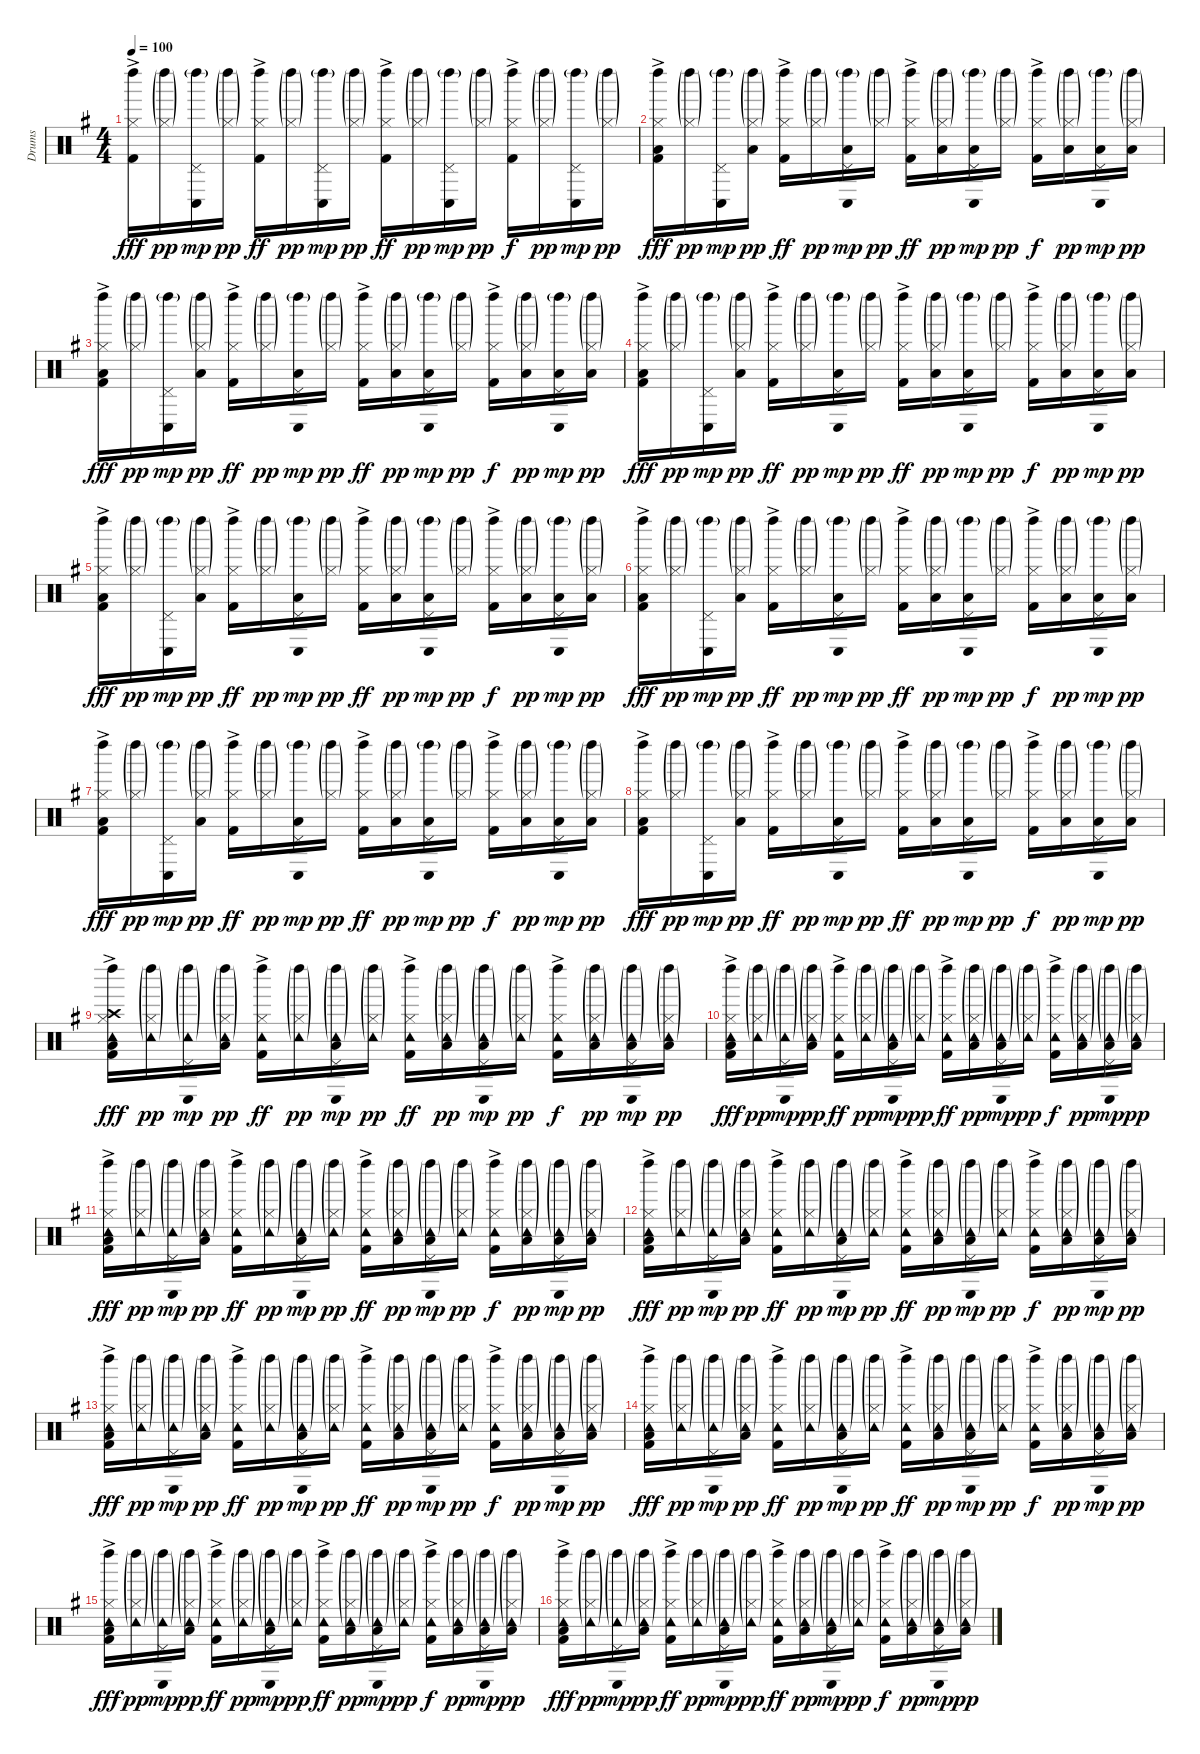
\track ("Drums" "Drums") {instrument percussion}
\staff {score}
\articulation defaults
\ts (4 4)
\tempo 100
\clef neutral
\ks g
("Kick (hit) 2"{ac} "Hi-Hat (closed)" "Left Maraca (hit)").16{dy fff} ("Hi-Hat (closed)"{g} "Left Maraca (hit)"{g}).16{dy pp} ("Pedal Hi-Hat (hit)" "Conga low (hit)" "Left Maraca (hit)"{g}).16{dy mp} ("Hi-Hat (closed)"{g} "Left Maraca (hit)"{g}).16{dy pp} ("Kick (hit) 2"{ac} "Hi-Hat (closed)" "Left Maraca (hit)").16{dy ff} ("Hi-Hat (closed)"{g} "Left Maraca (hit)"{g}).16{dy pp} ("Pedal Hi-Hat (hit)" "Conga low (hit)" "Left Maraca (hit)"{g}).16{dy mp} ("Hi-Hat (closed)"{g} "Left Maraca (hit)"{g}).16{dy pp} ("Kick (hit) 2"{ac} "Hi-Hat (closed)" "Left Maraca (hit)").16{dy ff} ("Hi-Hat (closed)"{g} "Left Maraca (hit)"{g}).16{dy pp} ("Pedal Hi-Hat (hit)" "Conga low (hit)" "Left Maraca (hit)"{g}).16{dy mp} ("Hi-Hat (closed)"{g} "Left Maraca (hit)"{g}).16{dy pp} ("Kick (hit) 2"{ac} "Hi-Hat (closed)" "Left Maraca (hit)").16{dy f} ("Hi-Hat (closed)"{g} "Left Maraca (hit)"{g}).16{dy pp} ("Pedal Hi-Hat (hit)" "Conga low (hit)" "Left Maraca (hit)"{g}).16{dy mp} ("Hi-Hat (closed)"{g} "Left Maraca (hit)"{g}).16{dy pp} |
("Kick (hit) 2"{ac} "Low Floor Tom (hit)" "Hi-Hat (closed)" "Left Maraca (hit)").16{dy fff} ("Hi-Hat (closed)"{g} "Left Maraca (hit)"{g}).16{dy pp} ("Conga low (hit)" "Pedal Hi-Hat (hit)" "Left Maraca (hit)"{g}).16{dy mp} ("Low Floor Tom (hit)" "Hi-Hat (closed)"{g} "Left Maraca (hit)"{g}).16{dy pp} ("Kick (hit) 2"{ac} "Hi-Hat (closed)" "Left Maraca (hit)").16{dy ff} ("Hi-Hat (closed)"{g} "Left Maraca (hit)"{g}).16{dy pp} ("Low Floor Tom (hit)" "Conga low (hit)" "Pedal Hi-Hat (hit)" "Left Maraca (hit)"{g}).16{dy mp} ("Hi-Hat (closed)"{g} "Left Maraca (hit)"{g}).16{dy pp} ("Kick (hit) 2"{ac} "Hi-Hat (closed)" "Left Maraca (hit)").16{dy ff} ("Low Floor Tom (hit)" "Hi-Hat (closed)"{g} "Left Maraca (hit)"{g}).16{dy pp} ("Low Floor Tom (hit)" "Conga low (hit)" "Pedal Hi-Hat (hit)" "Left Maraca (hit)"{g}).16{dy mp} ("Hi-Hat (closed)"{g} "Left Maraca (hit)"{g}).16{dy pp} ("Kick (hit) 2"{ac} "Hi-Hat (closed)" "Left Maraca (hit)").16{dy f} ("Low Floor Tom (hit)" "Hi-Hat (closed)"{g} "Left Maraca (hit)"{g}).16{dy pp} ("Low Floor Tom (hit)" "Conga low (hit)" "Pedal Hi-Hat (hit)" "Left Maraca (hit)"{g}).16{dy mp} ("Low Floor Tom (hit)" "Hi-Hat (closed)"{g} "Left Maraca (hit)"{g}).16{dy pp} |
("Kick (hit) 2"{ac} "Low Floor Tom (hit)" "Hi-Hat (closed)" "Left Maraca (hit)").16{dy fff} ("Hi-Hat (closed)"{g} "Left Maraca (hit)"{g}).16{dy pp} ("Conga low (hit)" "Pedal Hi-Hat (hit)" "Left Maraca (hit)"{g}).16{dy mp} ("Low Floor Tom (hit)" "Hi-Hat (closed)"{g} "Left Maraca (hit)"{g}).16{dy pp} ("Kick (hit) 2"{ac} "Hi-Hat (closed)" "Left Maraca (hit)").16{dy ff} ("Hi-Hat (closed)"{g} "Left Maraca (hit)"{g}).16{dy pp} ("Low Floor Tom (hit)" "Conga low (hit)" "Pedal Hi-Hat (hit)" "Left Maraca (hit)"{g}).16{dy mp} ("Hi-Hat (closed)"{g} "Left Maraca (hit)"{g}).16{dy pp} ("Kick (hit) 2"{ac} "Hi-Hat (closed)" "Left Maraca (hit)").16{dy ff} ("Low Floor Tom (hit)" "Hi-Hat (closed)"{g} "Left Maraca (hit)"{g}).16{dy pp} ("Low Floor Tom (hit)" "Conga low (hit)" "Pedal Hi-Hat (hit)" "Left Maraca (hit)"{g}).16{dy mp} ("Hi-Hat (closed)"{g} "Left Maraca (hit)"{g}).16{dy pp} ("Kick (hit) 2"{ac} "Hi-Hat (closed)" "Left Maraca (hit)").16{dy f} ("Low Floor Tom (hit)" "Hi-Hat (closed)"{g} "Left Maraca (hit)"{g}).16{dy pp} ("Low Floor Tom (hit)" "Conga low (hit)" "Pedal Hi-Hat (hit)" "Left Maraca (hit)"{g}).16{dy mp} ("Low Floor Tom (hit)" "Hi-Hat (closed)"{g} "Left Maraca (hit)"{g}).16{dy pp} |
("Kick (hit) 2"{ac} "Low Floor Tom (hit)" "Hi-Hat (closed)" "Left Maraca (hit)").16{dy fff} ("Hi-Hat (closed)"{g} "Left Maraca (hit)"{g}).16{dy pp} ("Conga low (hit)" "Pedal Hi-Hat (hit)" "Left Maraca (hit)"{g}).16{dy mp} ("Low Floor Tom (hit)" "Hi-Hat (closed)"{g} "Left Maraca (hit)"{g}).16{dy pp} ("Kick (hit) 2"{ac} "Hi-Hat (closed)" "Left Maraca (hit)").16{dy ff} ("Hi-Hat (closed)"{g} "Left Maraca (hit)"{g}).16{dy pp} ("Low Floor Tom (hit)" "Conga low (hit)" "Pedal Hi-Hat (hit)" "Left Maraca (hit)"{g}).16{dy mp} ("Hi-Hat (closed)"{g} "Left Maraca (hit)"{g}).16{dy pp} ("Kick (hit) 2"{ac} "Hi-Hat (closed)" "Left Maraca (hit)").16{dy ff} ("Low Floor Tom (hit)" "Hi-Hat (closed)"{g} "Left Maraca (hit)"{g}).16{dy pp} ("Low Floor Tom (hit)" "Conga low (hit)" "Pedal Hi-Hat (hit)" "Left Maraca (hit)"{g}).16{dy mp} ("Hi-Hat (closed)"{g} "Left Maraca (hit)"{g}).16{dy pp} ("Kick (hit) 2"{ac} "Hi-Hat (closed)" "Left Maraca (hit)").16{dy f} ("Low Floor Tom (hit)" "Hi-Hat (closed)"{g} "Left Maraca (hit)"{g}).16{dy pp} ("Low Floor Tom (hit)" "Conga low (hit)" "Pedal Hi-Hat (hit)" "Left Maraca (hit)"{g}).16{dy mp} ("Low Floor Tom (hit)" "Hi-Hat (closed)"{g} "Left Maraca (hit)"{g}).16{dy pp} |
("Kick (hit) 2"{ac} "Low Floor Tom (hit)" "Hi-Hat (closed)" "Left Maraca (hit)").16{dy fff} ("Hi-Hat (closed)"{g} "Left Maraca (hit)"{g}).16{dy pp} ("Conga low (hit)" "Pedal Hi-Hat (hit)" "Left Maraca (hit)"{g}).16{dy mp} ("Low Floor Tom (hit)" "Hi-Hat (closed)"{g} "Left Maraca (hit)"{g}).16{dy pp} ("Kick (hit) 2"{ac} "Hi-Hat (closed)" "Left Maraca (hit)").16{dy ff} ("Hi-Hat (closed)"{g} "Left Maraca (hit)"{g}).16{dy pp} ("Low Floor Tom (hit)" "Conga low (hit)" "Pedal Hi-Hat (hit)" "Left Maraca (hit)"{g}).16{dy mp} ("Hi-Hat (closed)"{g} "Left Maraca (hit)"{g}).16{dy pp} ("Kick (hit) 2"{ac} "Hi-Hat (closed)" "Left Maraca (hit)").16{dy ff} ("Low Floor Tom (hit)" "Hi-Hat (closed)"{g} "Left Maraca (hit)"{g}).16{dy pp} ("Low Floor Tom (hit)" "Conga low (hit)" "Pedal Hi-Hat (hit)" "Left Maraca (hit)"{g}).16{dy mp} ("Hi-Hat (closed)"{g} "Left Maraca (hit)"{g}).16{dy pp} ("Kick (hit) 2"{ac} "Hi-Hat (closed)" "Left Maraca (hit)").16{dy f} ("Low Floor Tom (hit)" "Hi-Hat (closed)"{g} "Left Maraca (hit)"{g}).16{dy pp} ("Low Floor Tom (hit)" "Conga low (hit)" "Pedal Hi-Hat (hit)" "Left Maraca (hit)"{g}).16{dy mp} ("Low Floor Tom (hit)" "Hi-Hat (closed)"{g} "Left Maraca (hit)"{g}).16{dy pp} |
("Kick (hit) 2"{ac} "Low Floor Tom (hit)" "Hi-Hat (closed)" "Left Maraca (hit)").16{dy fff} ("Hi-Hat (closed)"{g} "Left Maraca (hit)"{g}).16{dy pp} ("Conga low (hit)" "Pedal Hi-Hat (hit)" "Left Maraca (hit)"{g}).16{dy mp} ("Low Floor Tom (hit)" "Hi-Hat (closed)"{g} "Left Maraca (hit)"{g}).16{dy pp} ("Kick (hit) 2"{ac} "Hi-Hat (closed)" "Left Maraca (hit)").16{dy ff} ("Hi-Hat (closed)"{g} "Left Maraca (hit)"{g}).16{dy pp} ("Low Floor Tom (hit)" "Conga low (hit)" "Pedal Hi-Hat (hit)" "Left Maraca (hit)"{g}).16{dy mp} ("Hi-Hat (closed)"{g} "Left Maraca (hit)"{g}).16{dy pp} ("Kick (hit) 2"{ac} "Hi-Hat (closed)" "Left Maraca (hit)").16{dy ff} ("Low Floor Tom (hit)" "Hi-Hat (closed)"{g} "Left Maraca (hit)"{g}).16{dy pp} ("Low Floor Tom (hit)" "Conga low (hit)" "Pedal Hi-Hat (hit)" "Left Maraca (hit)"{g}).16{dy mp} ("Hi-Hat (closed)"{g} "Left Maraca (hit)"{g}).16{dy pp} ("Kick (hit) 2"{ac} "Hi-Hat (closed)" "Left Maraca (hit)").16{dy f} ("Low Floor Tom (hit)" "Hi-Hat (closed)"{g} "Left Maraca (hit)"{g}).16{dy pp} ("Low Floor Tom (hit)" "Conga low (hit)" "Pedal Hi-Hat (hit)" "Left Maraca (hit)"{g}).16{dy mp} ("Low Floor Tom (hit)" "Hi-Hat (closed)"{g} "Left Maraca (hit)"{g}).16{dy pp} |
("Kick (hit) 2"{ac} "Low Floor Tom (hit)" "Hi-Hat (closed)" "Left Maraca (hit)").16{dy fff} ("Hi-Hat (closed)"{g} "Left Maraca (hit)"{g}).16{dy pp} ("Conga low (hit)" "Pedal Hi-Hat (hit)" "Left Maraca (hit)"{g}).16{dy mp} ("Low Floor Tom (hit)" "Hi-Hat (closed)"{g} "Left Maraca (hit)"{g}).16{dy pp} ("Kick (hit) 2"{ac} "Hi-Hat (closed)" "Left Maraca (hit)").16{dy ff} ("Hi-Hat (closed)"{g} "Left Maraca (hit)"{g}).16{dy pp} ("Low Floor Tom (hit)" "Conga low (hit)" "Pedal Hi-Hat (hit)" "Left Maraca (hit)"{g}).16{dy mp} ("Hi-Hat (closed)"{g} "Left Maraca (hit)"{g}).16{dy pp} ("Kick (hit) 2"{ac} "Hi-Hat (closed)" "Left Maraca (hit)").16{dy ff} ("Low Floor Tom (hit)" "Hi-Hat (closed)"{g} "Left Maraca (hit)"{g}).16{dy pp} ("Low Floor Tom (hit)" "Conga low (hit)" "Pedal Hi-Hat (hit)" "Left Maraca (hit)"{g}).16{dy mp} ("Hi-Hat (closed)"{g} "Left Maraca (hit)"{g}).16{dy pp} ("Kick (hit) 2"{ac} "Hi-Hat (closed)" "Left Maraca (hit)").16{dy f} ("Low Floor Tom (hit)" "Hi-Hat (closed)"{g} "Left Maraca (hit)"{g}).16{dy pp} ("Low Floor Tom (hit)" "Conga low (hit)" "Pedal Hi-Hat (hit)" "Left Maraca (hit)"{g}).16{dy mp} ("Low Floor Tom (hit)" "Hi-Hat (closed)"{g} "Left Maraca (hit)"{g}).16{dy pp} |
("Kick (hit) 2"{ac} "Low Floor Tom (hit)" "Hi-Hat (closed)" "Left Maraca (hit)").16{dy fff} ("Hi-Hat (closed)"{g} "Left Maraca (hit)"{g}).16{dy pp} ("Conga low (hit)" "Pedal Hi-Hat (hit)" "Left Maraca (hit)"{g}).16{dy mp} ("Low Floor Tom (hit)" "Hi-Hat (closed)"{g} "Left Maraca (hit)"{g}).16{dy pp} ("Kick (hit) 2"{ac} "Hi-Hat (closed)" "Left Maraca (hit)").16{dy ff} ("Hi-Hat (closed)"{g} "Left Maraca (hit)"{g}).16{dy pp} ("Low Floor Tom (hit)" "Conga low (hit)" "Pedal Hi-Hat (hit)" "Left Maraca (hit)"{g}).16{dy mp} ("Hi-Hat (closed)"{g} "Left Maraca (hit)"{g}).16{dy pp} ("Kick (hit) 2"{ac} "Hi-Hat (closed)" "Left Maraca (hit)").16{dy ff} ("Low Floor Tom (hit)" "Hi-Hat (closed)"{g} "Left Maraca (hit)"{g}).16{dy pp} ("Low Floor Tom (hit)" "Conga low (hit)" "Pedal Hi-Hat (hit)" "Left Maraca (hit)"{g}).16{dy mp} ("Hi-Hat (closed)"{g} "Left Maraca (hit)"{g}).16{dy pp} ("Kick (hit) 2"{ac} "Hi-Hat (closed)" "Left Maraca (hit)").16{dy f} ("Low Floor Tom (hit)" "Hi-Hat (closed)"{g} "Left Maraca (hit)"{g}).16{dy pp} ("Low Floor Tom (hit)" "Conga low (hit)" "Pedal Hi-Hat (hit)" "Left Maraca (hit)"{g}).16{dy mp} ("Low Floor Tom (hit)" "Hi-Hat (closed)"{g} "Left Maraca (hit)"{g}).16{dy pp} |
("Kick (hit) 2"{ac} "Low Floor Tom (hit)" "Crash high (hit)" "Hi-Hat (closed)" "Tambourine (hit)" "Left Maraca (hit)").16{dy fff} ("Hi-Hat (closed)"{g} "Tambourine (hit)"{g} "Left Maraca (hit)"{g}).16{dy pp} ("Conga low (hit)" "Pedal Hi-Hat (hit)" "Tambourine (hit)"{g} "Left Maraca (hit)"{g}).16{dy mp} ("Low Floor Tom (hit)" "Hi-Hat (closed)"{g} "Tambourine (hit)"{g} "Left Maraca (hit)"{g}).16{dy pp} ("Kick (hit) 2"{ac} "Hi-Hat (closed)" "Tambourine (hit)" "Left Maraca (hit)").16{dy ff} ("Hi-Hat (closed)"{g} "Tambourine (hit)"{g} "Left Maraca (hit)"{g}).16{dy pp} ("Low Floor Tom (hit)" "Conga low (hit)" "Pedal Hi-Hat (hit)" "Tambourine (hit)"{g} "Left Maraca (hit)"{g}).16{dy mp} ("Hi-Hat (closed)"{g} "Tambourine (hit)"{g} "Left Maraca (hit)"{g}).16{dy pp} ("Kick (hit) 2"{ac} "Hi-Hat (closed)" "Tambourine (hit)" "Left Maraca (hit)").16{dy ff} ("Low Floor Tom (hit)" "Hi-Hat (closed)"{g} "Tambourine (hit)"{g} "Left Maraca (hit)"{g}).16{dy pp} ("Low Floor Tom (hit)" "Conga low (hit)" "Pedal Hi-Hat (hit)" "Tambourine (hit)"{g} "Left Maraca (hit)"{g}).16{dy mp} ("Hi-Hat (closed)"{g} "Tambourine (hit)"{g} "Left Maraca (hit)"{g}).16{dy pp} ("Kick (hit) 2"{ac} "Hi-Hat (closed)" "Tambourine (hit)" "Left Maraca (hit)").16{dy f} ("Low Floor Tom (hit)" "Hi-Hat (closed)"{g} "Tambourine (hit)"{g} "Left Maraca (hit)"{g}).16{dy pp} ("Low Floor Tom (hit)" "Conga low (hit)" "Pedal Hi-Hat (hit)" "Tambourine (hit)"{g} "Left Maraca (hit)"{g}).16{dy mp} ("Low Floor Tom (hit)" "Hi-Hat (closed)"{g} "Tambourine (hit)"{g} "Left Maraca (hit)"{g}).16{dy pp} |
("Kick (hit) 2"{ac} "Low Floor Tom (hit)" "Hi-Hat (closed)" "Tambourine (hit)" "Left Maraca (hit)").16{dy fff} ("Hi-Hat (closed)"{g} "Tambourine (hit)"{g} "Left Maraca (hit)"{g}).16{dy pp} ("Conga low (hit)" "Pedal Hi-Hat (hit)" "Tambourine (hit)"{g} "Left Maraca (hit)"{g}).16{dy mp} ("Low Floor Tom (hit)" "Hi-Hat (closed)"{g} "Tambourine (hit)"{g} "Left Maraca (hit)"{g}).16{dy pp} ("Kick (hit) 2"{ac} "Hi-Hat (closed)" "Tambourine (hit)" "Left Maraca (hit)").16{dy ff} ("Hi-Hat (closed)"{g} "Tambourine (hit)"{g} "Left Maraca (hit)"{g}).16{dy pp} ("Low Floor Tom (hit)" "Conga low (hit)" "Pedal Hi-Hat (hit)" "Tambourine (hit)"{g} "Left Maraca (hit)"{g}).16{dy mp} ("Hi-Hat (closed)"{g} "Tambourine (hit)"{g} "Left Maraca (hit)"{g}).16{dy pp} ("Kick (hit) 2"{ac} "Hi-Hat (closed)" "Tambourine (hit)" "Left Maraca (hit)").16{dy ff} ("Low Floor Tom (hit)" "Hi-Hat (closed)"{g} "Tambourine (hit)"{g} "Left Maraca (hit)"{g}).16{dy pp} ("Low Floor Tom (hit)" "Conga low (hit)" "Pedal Hi-Hat (hit)" "Tambourine (hit)"{g} "Left Maraca (hit)"{g}).16{dy mp} ("Hi-Hat (closed)"{g} "Tambourine (hit)"{g} "Left Maraca (hit)"{g}).16{dy pp} ("Kick (hit) 2"{ac} "Hi-Hat (closed)" "Tambourine (hit)" "Left Maraca (hit)").16{dy f} ("Low Floor Tom (hit)" "Hi-Hat (closed)"{g} "Tambourine (hit)"{g} "Left Maraca (hit)"{g}).16{dy pp} ("Low Floor Tom (hit)" "Conga low (hit)" "Pedal Hi-Hat (hit)" "Tambourine (hit)"{g} "Left Maraca (hit)"{g}).16{dy mp} ("Low Floor Tom (hit)" "Hi-Hat (closed)"{g} "Tambourine (hit)"{g} "Left Maraca (hit)"{g}).16{dy pp} |
("Kick (hit) 2"{ac} "Low Floor Tom (hit)" "Hi-Hat (closed)" "Tambourine (hit)" "Left Maraca (hit)").16{dy fff} ("Hi-Hat (closed)"{g} "Tambourine (hit)"{g} "Left Maraca (hit)"{g}).16{dy pp} ("Conga low (hit)" "Pedal Hi-Hat (hit)" "Tambourine (hit)"{g} "Left Maraca (hit)"{g}).16{dy mp} ("Low Floor Tom (hit)" "Hi-Hat (closed)"{g} "Tambourine (hit)"{g} "Left Maraca (hit)"{g}).16{dy pp} ("Kick (hit) 2"{ac} "Hi-Hat (closed)" "Tambourine (hit)" "Left Maraca (hit)").16{dy ff} ("Hi-Hat (closed)"{g} "Tambourine (hit)"{g} "Left Maraca (hit)"{g}).16{dy pp} ("Low Floor Tom (hit)" "Conga low (hit)" "Pedal Hi-Hat (hit)" "Tambourine (hit)"{g} "Left Maraca (hit)"{g}).16{dy mp} ("Hi-Hat (closed)"{g} "Tambourine (hit)"{g} "Left Maraca (hit)"{g}).16{dy pp} ("Kick (hit) 2"{ac} "Hi-Hat (closed)" "Tambourine (hit)" "Left Maraca (hit)").16{dy ff} ("Low Floor Tom (hit)" "Hi-Hat (closed)"{g} "Tambourine (hit)"{g} "Left Maraca (hit)"{g}).16{dy pp} ("Low Floor Tom (hit)" "Conga low (hit)" "Pedal Hi-Hat (hit)" "Tambourine (hit)"{g} "Left Maraca (hit)"{g}).16{dy mp} ("Hi-Hat (closed)"{g} "Tambourine (hit)"{g} "Left Maraca (hit)"{g}).16{dy pp} ("Kick (hit) 2"{ac} "Hi-Hat (closed)" "Tambourine (hit)" "Left Maraca (hit)").16{dy f} ("Low Floor Tom (hit)" "Hi-Hat (closed)"{g} "Tambourine (hit)"{g} "Left Maraca (hit)"{g}).16{dy pp} ("Low Floor Tom (hit)" "Conga low (hit)" "Pedal Hi-Hat (hit)" "Tambourine (hit)"{g} "Left Maraca (hit)"{g}).16{dy mp} ("Low Floor Tom (hit)" "Hi-Hat (closed)"{g} "Tambourine (hit)"{g} "Left Maraca (hit)"{g}).16{dy pp} |
("Kick (hit) 2"{ac} "Low Floor Tom (hit)" "Hi-Hat (closed)" "Tambourine (hit)" "Left Maraca (hit)").16{dy fff} ("Hi-Hat (closed)"{g} "Tambourine (hit)"{g} "Left Maraca (hit)"{g}).16{dy pp} ("Conga low (hit)" "Pedal Hi-Hat (hit)" "Tambourine (hit)"{g} "Left Maraca (hit)"{g}).16{dy mp} ("Low Floor Tom (hit)" "Hi-Hat (closed)"{g} "Tambourine (hit)"{g} "Left Maraca (hit)"{g}).16{dy pp} ("Kick (hit) 2"{ac} "Hi-Hat (closed)" "Tambourine (hit)" "Left Maraca (hit)").16{dy ff} ("Hi-Hat (closed)"{g} "Tambourine (hit)"{g} "Left Maraca (hit)"{g}).16{dy pp} ("Low Floor Tom (hit)" "Conga low (hit)" "Pedal Hi-Hat (hit)" "Tambourine (hit)"{g} "Left Maraca (hit)"{g}).16{dy mp} ("Hi-Hat (closed)"{g} "Tambourine (hit)"{g} "Left Maraca (hit)"{g}).16{dy pp} ("Kick (hit) 2"{ac} "Hi-Hat (closed)" "Tambourine (hit)" "Left Maraca (hit)").16{dy ff} ("Low Floor Tom (hit)" "Hi-Hat (closed)"{g} "Tambourine (hit)"{g} "Left Maraca (hit)"{g}).16{dy pp} ("Low Floor Tom (hit)" "Conga low (hit)" "Pedal Hi-Hat (hit)" "Tambourine (hit)"{g} "Left Maraca (hit)"{g}).16{dy mp} ("Hi-Hat (closed)"{g} "Tambourine (hit)"{g} "Left Maraca (hit)"{g}).16{dy pp} ("Kick (hit) 2"{ac} "Hi-Hat (closed)" "Tambourine (hit)" "Left Maraca (hit)").16{dy f} ("Low Floor Tom (hit)" "Hi-Hat (closed)"{g} "Tambourine (hit)"{g} "Left Maraca (hit)"{g}).16{dy pp} ("Low Floor Tom (hit)" "Conga low (hit)" "Pedal Hi-Hat (hit)" "Tambourine (hit)"{g} "Left Maraca (hit)"{g}).16{dy mp} ("Low Floor Tom (hit)" "Hi-Hat (closed)"{g} "Tambourine (hit)"{g} "Left Maraca (hit)"{g}).16{dy pp} |
("Kick (hit) 2"{ac} "Low Floor Tom (hit)" "Hi-Hat (closed)" "Tambourine (hit)" "Left Maraca (hit)").16{dy fff} ("Hi-Hat (closed)"{g} "Tambourine (hit)"{g} "Left Maraca (hit)"{g}).16{dy pp} ("Conga low (hit)" "Pedal Hi-Hat (hit)" "Tambourine (hit)"{g} "Left Maraca (hit)"{g}).16{dy mp} ("Low Floor Tom (hit)" "Hi-Hat (closed)"{g} "Tambourine (hit)"{g} "Left Maraca (hit)"{g}).16{dy pp} ("Kick (hit) 2"{ac} "Hi-Hat (closed)" "Tambourine (hit)" "Left Maraca (hit)").16{dy ff} ("Hi-Hat (closed)"{g} "Tambourine (hit)"{g} "Left Maraca (hit)"{g}).16{dy pp} ("Low Floor Tom (hit)" "Conga low (hit)" "Pedal Hi-Hat (hit)" "Tambourine (hit)"{g} "Left Maraca (hit)"{g}).16{dy mp} ("Hi-Hat (closed)"{g} "Tambourine (hit)"{g} "Left Maraca (hit)"{g}).16{dy pp} ("Kick (hit) 2"{ac} "Hi-Hat (closed)" "Tambourine (hit)" "Left Maraca (hit)").16{dy ff} ("Low Floor Tom (hit)" "Hi-Hat (closed)"{g} "Tambourine (hit)"{g} "Left Maraca (hit)"{g}).16{dy pp} ("Low Floor Tom (hit)" "Conga low (hit)" "Pedal Hi-Hat (hit)" "Tambourine (hit)"{g} "Left Maraca (hit)"{g}).16{dy mp} ("Hi-Hat (closed)"{g} "Tambourine (hit)"{g} "Left Maraca (hit)"{g}).16{dy pp} ("Kick (hit) 2"{ac} "Hi-Hat (closed)" "Tambourine (hit)" "Left Maraca (hit)").16{dy f} ("Low Floor Tom (hit)" "Hi-Hat (closed)"{g} "Tambourine (hit)"{g} "Left Maraca (hit)"{g}).16{dy pp} ("Low Floor Tom (hit)" "Conga low (hit)" "Pedal Hi-Hat (hit)" "Tambourine (hit)"{g} "Left Maraca (hit)"{g}).16{dy mp} ("Low Floor Tom (hit)" "Hi-Hat (closed)"{g} "Tambourine (hit)"{g} "Left Maraca (hit)"{g}).16{dy pp} |
("Kick (hit) 2"{ac} "Low Floor Tom (hit)" "Hi-Hat (closed)" "Tambourine (hit)" "Left Maraca (hit)").16{dy fff} ("Hi-Hat (closed)"{g} "Tambourine (hit)"{g} "Left Maraca (hit)"{g}).16{dy pp} ("Conga low (hit)" "Pedal Hi-Hat (hit)" "Tambourine (hit)"{g} "Left Maraca (hit)"{g}).16{dy mp} ("Low Floor Tom (hit)" "Hi-Hat (closed)"{g} "Tambourine (hit)"{g} "Left Maraca (hit)"{g}).16{dy pp} ("Kick (hit) 2"{ac} "Hi-Hat (closed)" "Tambourine (hit)" "Left Maraca (hit)").16{dy ff} ("Hi-Hat (closed)"{g} "Tambourine (hit)"{g} "Left Maraca (hit)"{g}).16{dy pp} ("Low Floor Tom (hit)" "Conga low (hit)" "Pedal Hi-Hat (hit)" "Tambourine (hit)"{g} "Left Maraca (hit)"{g}).16{dy mp} ("Hi-Hat (closed)"{g} "Tambourine (hit)"{g} "Left Maraca (hit)"{g}).16{dy pp} ("Kick (hit) 2"{ac} "Hi-Hat (closed)" "Tambourine (hit)" "Left Maraca (hit)").16{dy ff} ("Low Floor Tom (hit)" "Hi-Hat (closed)"{g} "Tambourine (hit)"{g} "Left Maraca (hit)"{g}).16{dy pp} ("Low Floor Tom (hit)" "Conga low (hit)" "Pedal Hi-Hat (hit)" "Tambourine (hit)"{g} "Left Maraca (hit)"{g}).16{dy mp} ("Hi-Hat (closed)"{g} "Tambourine (hit)"{g} "Left Maraca (hit)"{g}).16{dy pp} ("Kick (hit) 2"{ac} "Hi-Hat (closed)" "Tambourine (hit)" "Left Maraca (hit)").16{dy f} ("Low Floor Tom (hit)" "Hi-Hat (closed)"{g} "Tambourine (hit)"{g} "Left Maraca (hit)"{g}).16{dy pp} ("Low Floor Tom (hit)" "Conga low (hit)" "Pedal Hi-Hat (hit)" "Tambourine (hit)"{g} "Left Maraca (hit)"{g}).16{dy mp} ("Low Floor Tom (hit)" "Hi-Hat (closed)"{g} "Tambourine (hit)"{g} "Left Maraca (hit)"{g}).16{dy pp} |
("Kick (hit) 2"{ac} "Low Floor Tom (hit)" "Hi-Hat (closed)" "Tambourine (hit)" "Left Maraca (hit)").16{dy fff} ("Hi-Hat (closed)"{g} "Tambourine (hit)"{g} "Left Maraca (hit)"{g}).16{dy pp} ("Conga low (hit)" "Pedal Hi-Hat (hit)" "Tambourine (hit)"{g} "Left Maraca (hit)"{g}).16{dy mp} ("Low Floor Tom (hit)" "Hi-Hat (closed)"{g} "Tambourine (hit)"{g} "Left Maraca (hit)"{g}).16{dy pp} ("Kick (hit) 2"{ac} "Hi-Hat (closed)" "Tambourine (hit)" "Left Maraca (hit)").16{dy ff} ("Hi-Hat (closed)"{g} "Tambourine (hit)"{g} "Left Maraca (hit)"{g}).16{dy pp} ("Low Floor Tom (hit)" "Conga low (hit)" "Pedal Hi-Hat (hit)" "Tambourine (hit)"{g} "Left Maraca (hit)"{g}).16{dy mp} ("Hi-Hat (closed)"{g} "Tambourine (hit)"{g} "Left Maraca (hit)"{g}).16{dy pp} ("Kick (hit) 2"{ac} "Hi-Hat (closed)" "Tambourine (hit)" "Left Maraca (hit)").16{dy ff} ("Low Floor Tom (hit)" "Hi-Hat (closed)"{g} "Tambourine (hit)"{g} "Left Maraca (hit)"{g}).16{dy pp} ("Low Floor Tom (hit)" "Conga low (hit)" "Pedal Hi-Hat (hit)" "Tambourine (hit)"{g} "Left Maraca (hit)"{g}).16{dy mp} ("Hi-Hat (closed)"{g} "Tambourine (hit)"{g} "Left Maraca (hit)"{g}).16{dy pp} ("Kick (hit) 2"{ac} "Hi-Hat (closed)" "Tambourine (hit)" "Left Maraca (hit)").16{dy f} ("Low Floor Tom (hit)" "Hi-Hat (closed)"{g} "Tambourine (hit)"{g} "Left Maraca (hit)"{g}).16{dy pp} ("Low Floor Tom (hit)" "Conga low (hit)" "Pedal Hi-Hat (hit)" "Tambourine (hit)"{g} "Left Maraca (hit)"{g}).16{dy mp} ("Low Floor Tom (hit)" "Hi-Hat (closed)"{g} "Tambourine (hit)"{g} "Left Maraca (hit)"{g}).16{dy pp} |
("Kick (hit) 2"{ac} "Low Floor Tom (hit)" "Hi-Hat (closed)" "Tambourine (hit)" "Left Maraca (hit)").16{dy fff} ("Hi-Hat (closed)"{g} "Tambourine (hit)"{g} "Left Maraca (hit)"{g}).16{dy pp} ("Conga low (hit)" "Pedal Hi-Hat (hit)" "Tambourine (hit)"{g} "Left Maraca (hit)"{g}).16{dy mp} ("Low Floor Tom (hit)" "Hi-Hat (closed)"{g} "Tambourine (hit)"{g} "Left Maraca (hit)"{g}).16{dy pp} ("Kick (hit) 2"{ac} "Hi-Hat (closed)" "Tambourine (hit)" "Left Maraca (hit)").16{dy ff} ("Hi-Hat (closed)"{g} "Tambourine (hit)"{g} "Left Maraca (hit)"{g}).16{dy pp} ("Low Floor Tom (hit)" "Conga low (hit)" "Pedal Hi-Hat (hit)" "Tambourine (hit)"{g} "Left Maraca (hit)"{g}).16{dy mp} ("Hi-Hat (closed)"{g} "Tambourine (hit)"{g} "Left Maraca (hit)"{g}).16{dy pp} ("Kick (hit) 2"{ac} "Hi-Hat (closed)" "Tambourine (hit)" "Left Maraca (hit)").16{dy ff} ("Low Floor Tom (hit)" "Hi-Hat (closed)"{g} "Tambourine (hit)"{g} "Left Maraca (hit)"{g}).16{dy pp} ("Low Floor Tom (hit)" "Conga low (hit)" "Pedal Hi-Hat (hit)" "Tambourine (hit)"{g} "Left Maraca (hit)"{g}).16{dy mp} ("Hi-Hat (closed)"{g} "Tambourine (hit)"{g} "Left Maraca (hit)"{g}).16{dy pp} ("Kick (hit) 2"{ac} "Hi-Hat (closed)" "Tambourine (hit)" "Left Maraca (hit)").16{dy f} ("Low Floor Tom (hit)" "Hi-Hat (closed)"{g} "Tambourine (hit)"{g} "Left Maraca (hit)"{g}).16{dy pp} ("Low Floor Tom (hit)" "Conga low (hit)" "Pedal Hi-Hat (hit)" "Tambourine (hit)"{g} "Left Maraca (hit)"{g}).16{dy mp} ("Low Floor Tom (hit)" "Hi-Hat (closed)"{g} "Tambourine (hit)"{g} "Left Maraca (hit)"{g}).16{dy pp}
